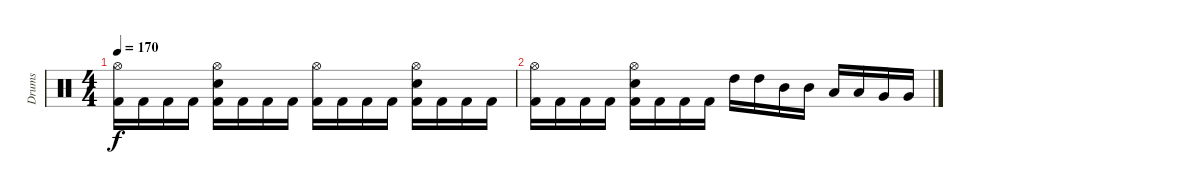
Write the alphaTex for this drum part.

\track ("Drums " "Drums ") {instrument percussion}
\staff {score}
\articulation defaults
\ts (4 4)
\tempo 170
\clef neutral
\ks c
("Hi-Hat (open)" "Kick (hit) 2").16{dy f} "Kick (hit) 2".16 "Kick (hit) 2".16 "Kick (hit) 2".16 ("Hi-Hat (open)" "Electric Snare (hit)" "Kick (hit) 2").16 "Kick (hit) 2".16 "Kick (hit) 2".16 "Kick (hit) 2".16 ("Hi-Hat (open)" "Kick (hit) 2").16 "Kick (hit) 2".16 "Kick (hit) 2".16 "Kick (hit) 2".16 ("Hi-Hat (open)" "Electric Snare (hit)" "Kick (hit) 2").16 "Kick (hit) 2".16 "Kick (hit) 2".16 "Kick (hit) 2".16 |
("Hi-Hat (open)" "Kick (hit) 2").16 "Kick (hit) 2".16 "Kick (hit) 2".16 "Kick (hit) 2".16 ("Hi-Hat (open)" "Electric Snare (hit)" "Kick (hit) 2").16 "Kick (hit) 2".16 "Kick (hit) 2".16 "Kick (hit) 2".16 "High Tom (hit)".16 "High Tom (hit)".16 "Mid Tom (hit)".16 "Mid Tom (hit)".16 "Low Tom (hit)".16 "Low Tom (hit)".16 "Very Low Tom (hit)".16 "Very Low Tom (hit)".16
